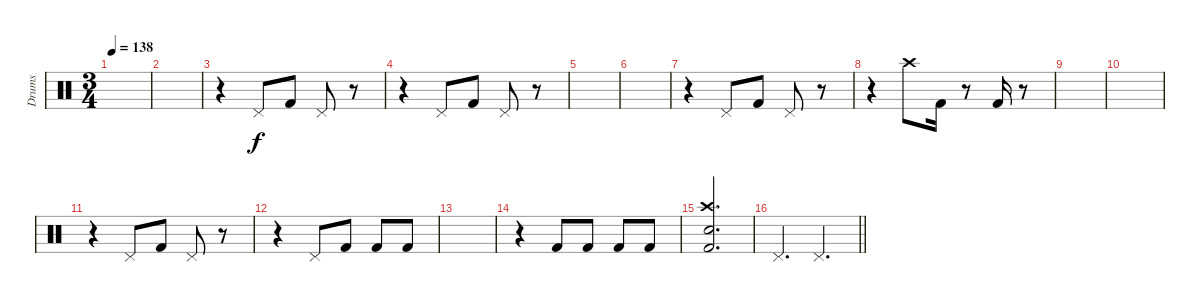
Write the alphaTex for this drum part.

\track ("Drums" "Drums") {instrument percussion}
\staff {score}
\articulation defaults
\ts (3 4)
\tempo 138
\clef neutral
\ks c
|
|
r.4 "Pedal Hi-Hat (hit)".8 "Kick (hit) 2".8 "Pedal Hi-Hat (hit)".8 r.8 |
r.4 "Pedal Hi-Hat (hit)".8 "Kick (hit) 2".8 "Pedal Hi-Hat (hit)".8 r.8 |
|
|
r.4 "Pedal Hi-Hat (hit)".8 "Kick (hit) 2".8 "Pedal Hi-Hat (hit)".8 r.8 |
r.4 "Crash high (hit)".8 "Kick (hit) 2".16 r.8 "Kick (hit) 2".16 r.8 |
|
|
r.4 "Pedal Hi-Hat (hit)".8 "Kick (hit) 2".8 "Pedal Hi-Hat (hit)".8 r.8 |
r.4 "Pedal Hi-Hat (hit)".8 "Kick (hit) 2".8 "Kick (hit) 2".8 "Kick (hit) 2".8 |
|
r.4 "Kick (hit) 2".8 "Kick (hit) 2".8 "Kick (hit) 2".8 "Kick (hit) 2".8 |
("Crash high (hit)" "Electric Snare (hit)" "Kick (hit) 2").2{d} |
\barLineRight lightlight "Pedal Hi-Hat (hit)".4{d} "Pedal Hi-Hat (hit)".4{d}
